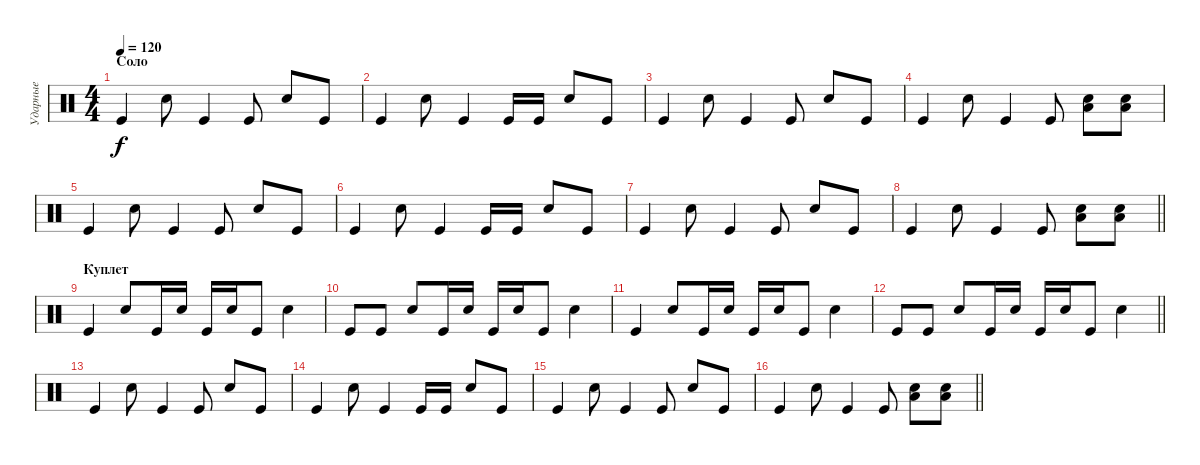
\track ("Ударные" "Ударные") {instrument percussion}
\staff {score}
\articulation defaults
\ts (4 4)
\section ("" "Соло")
\tempo 120
\clef neutral
\ks c "Kick (hit)".4{dy f} "Snare (hit) 2".8 "Kick (hit)".4 "Kick (hit)".8 "Snare (hit) 2".8 "Kick (hit)".8
|
"Kick (hit)".4 "Snare (hit) 2".8 "Kick (hit)".4 "Kick (hit)".16 "Kick (hit)".16 "Snare (hit) 2".8 "Kick (hit)".8 |
"Kick (hit)".4 "Snare (hit) 2".8 "Kick (hit)".4 "Kick (hit)".8 "Snare (hit) 2".8 "Kick (hit)".8 |
"Kick (hit)".4 "Snare (hit) 2".8 "Kick (hit)".4 "Kick (hit)".8 ("Snare (hit) 2" "Low Floor Tom (hit)").8 ("Snare (hit) 2" "Low Floor Tom (hit)").8 |
"Kick (hit)".4 "Snare (hit) 2".8 "Kick (hit)".4 "Kick (hit)".8 "Snare (hit) 2".8 "Kick (hit)".8 |
"Kick (hit)".4 "Snare (hit) 2".8 "Kick (hit)".4 "Kick (hit)".16 "Kick (hit)".16 "Snare (hit) 2".8 "Kick (hit)".8 |
"Kick (hit)".4 "Snare (hit) 2".8 "Kick (hit)".4 "Kick (hit)".8 "Snare (hit) 2".8 "Kick (hit)".8 |
\barLineRight lightlight "Kick (hit)".4 "Snare (hit) 2".8 "Kick (hit)".4 "Kick (hit)".8
("Snare (hit) 2" "Low Floor Tom (hit)").8 ("Snare (hit) 2" "Low Floor Tom (hit)").8 |
\section ("" "Куплет")
"Kick (hit)".4 "Snare (hit) 2".8 "Kick (hit)".16 "Snare (hit) 2".16 "Kick (hit)".16 "Snare (hit) 2".16 "Kick (hit)".8 "Snare (hit) 2".4 |
"Kick (hit)".8 "Kick (hit)".8 "Snare (hit) 2".8 "Kick (hit)".16 "Snare (hit) 2".16 "Kick (hit)".16 "Snare (hit) 2".16 "Kick (hit)".8 "Snare (hit) 2".4 |
"Kick (hit)".4 "Snare (hit) 2".8 "Kick (hit)".16 "Snare (hit) 2".16 "Kick (hit)".16 "Snare (hit) 2".16 "Kick (hit)".8 "Snare (hit) 2".4 |
\barLineRight lightlight "Kick (hit)".8 "Kick (hit)".8 "Snare (hit) 2".8 "Kick (hit)".16 "Snare (hit) 2".16 "Kick (hit)".16 "Snare (hit) 2".16 "Kick (hit)".8 "Snare (hit) 2".4
|
"Kick (hit)".4 "Snare (hit) 2".8 "Kick (hit)".4 "Kick (hit)".8 "Snare (hit) 2".8 "Kick (hit)".8 |
"Kick (hit)".4 "Snare (hit) 2".8 "Kick (hit)".4 "Kick (hit)".16 "Kick (hit)".16 "Snare (hit) 2".8 "Kick (hit)".8 |
"Kick (hit)".4 "Snare (hit) 2".8 "Kick (hit)".4 "Kick (hit)".8 "Snare (hit) 2".8 "Kick (hit)".8 |
\barLineRight lightlight "Kick (hit)".4 "Snare (hit) 2".8 "Kick (hit)".4 "Kick (hit)".8
("Snare (hit) 2" "Low Floor Tom (hit)").8 ("Snare (hit) 2" "Low Floor Tom (hit)").8
